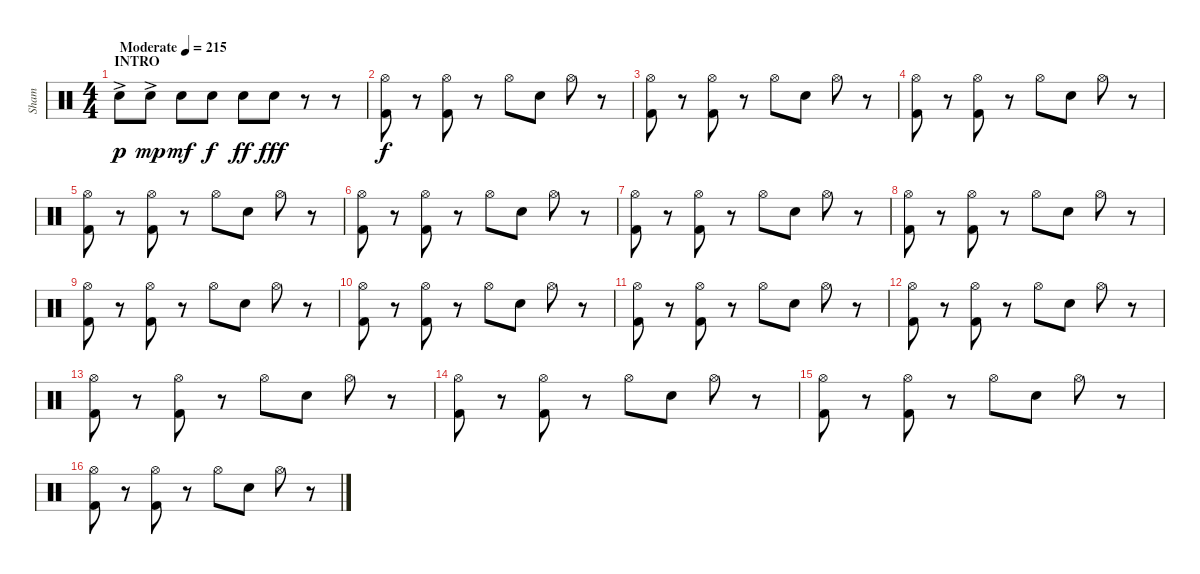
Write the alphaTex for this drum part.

\track ("Sham" "Sham") {instrument percussion}
\staff {score}
\articulation defaults
\ts (4 4)
\section ("" "INTRO")
\tempo (215 "Moderate")
\clef neutral
\ks c "Electric Snare (hit)"{ac}.8{dy p} "Electric Snare (hit)"{ac}.8{dy mp} "Electric Snare (hit)".8{dy mf} "Electric Snare (hit)".8{dy f} "Electric Snare (hit)".8{dy ff} "Electric Snare (hit)".8{dy fff}
r.8 r.8 |
("Kick (hit) 2" "Hi-Hat (open)").8{dy f} r.8 ("Kick (hit) 2" "Hi-Hat (open)").8 r.8 "Hi-Hat (open)".8 "Electric Snare (hit)".8 "Hi-Hat (open)".8 r.8 |
("Kick (hit) 2" "Hi-Hat (open)").8 r.8 ("Kick (hit) 2" "Hi-Hat (open)").8 r.8 "Hi-Hat (open)".8 "Electric Snare (hit)".8 "Hi-Hat (open)".8 r.8 |
("Kick (hit) 2" "Hi-Hat (open)").8 r.8 ("Kick (hit) 2" "Hi-Hat (open)").8 r.8 "Hi-Hat (open)".8 "Electric Snare (hit)".8 "Hi-Hat (open)".8 r.8 |
("Kick (hit) 2" "Hi-Hat (open)").8 r.8 ("Kick (hit) 2" "Hi-Hat (open)").8 r.8 "Hi-Hat (open)".8 "Electric Snare (hit)".8 "Hi-Hat (open)".8 r.8 |
("Kick (hit) 2" "Hi-Hat (open)").8 r.8 ("Kick (hit) 2" "Hi-Hat (open)").8 r.8 "Hi-Hat (open)".8 "Electric Snare (hit)".8 "Hi-Hat (open)".8 r.8 |
("Kick (hit) 2" "Hi-Hat (open)").8 r.8 ("Kick (hit) 2" "Hi-Hat (open)").8 r.8 "Hi-Hat (open)".8 "Electric Snare (hit)".8 "Hi-Hat (open)".8 r.8 |
("Kick (hit) 2" "Hi-Hat (open)").8 r.8 ("Kick (hit) 2" "Hi-Hat (open)").8 r.8 "Hi-Hat (open)".8 "Electric Snare (hit)".8 "Hi-Hat (open)".8 r.8 |
("Kick (hit) 2" "Hi-Hat (open)").8 r.8 ("Kick (hit) 2" "Hi-Hat (open)").8 r.8 "Hi-Hat (open)".8 "Electric Snare (hit)".8 "Hi-Hat (open)".8 r.8 |
("Kick (hit) 2" "Hi-Hat (open)").8 r.8 ("Kick (hit) 2" "Hi-Hat (open)").8 r.8 "Hi-Hat (open)".8 "Electric Snare (hit)".8 "Hi-Hat (open)".8 r.8 |
("Kick (hit) 2" "Hi-Hat (open)").8 r.8 ("Kick (hit) 2" "Hi-Hat (open)").8 r.8 "Hi-Hat (open)".8 "Electric Snare (hit)".8 "Hi-Hat (open)".8 r.8 |
("Kick (hit) 2" "Hi-Hat (open)").8 r.8 ("Kick (hit) 2" "Hi-Hat (open)").8 r.8 "Hi-Hat (open)".8 "Electric Snare (hit)".8 "Hi-Hat (open)".8 r.8 |
("Kick (hit) 2" "Hi-Hat (open)").8 r.8 ("Kick (hit) 2" "Hi-Hat (open)").8 r.8 "Hi-Hat (open)".8 "Electric Snare (hit)".8 "Hi-Hat (open)".8 r.8 |
("Kick (hit) 2" "Hi-Hat (open)").8 r.8 ("Kick (hit) 2" "Hi-Hat (open)").8 r.8 "Hi-Hat (open)".8 "Electric Snare (hit)".8 "Hi-Hat (open)".8 r.8 |
("Kick (hit) 2" "Hi-Hat (open)").8 r.8 ("Kick (hit) 2" "Hi-Hat (open)").8 r.8 "Hi-Hat (open)".8 "Electric Snare (hit)".8 "Hi-Hat (open)".8 r.8 |
("Kick (hit) 2" "Hi-Hat (open)").8 r.8 ("Kick (hit) 2" "Hi-Hat (open)").8 r.8 "Hi-Hat (open)".8 "Electric Snare (hit)".8 "Hi-Hat (open)".8 r.8
